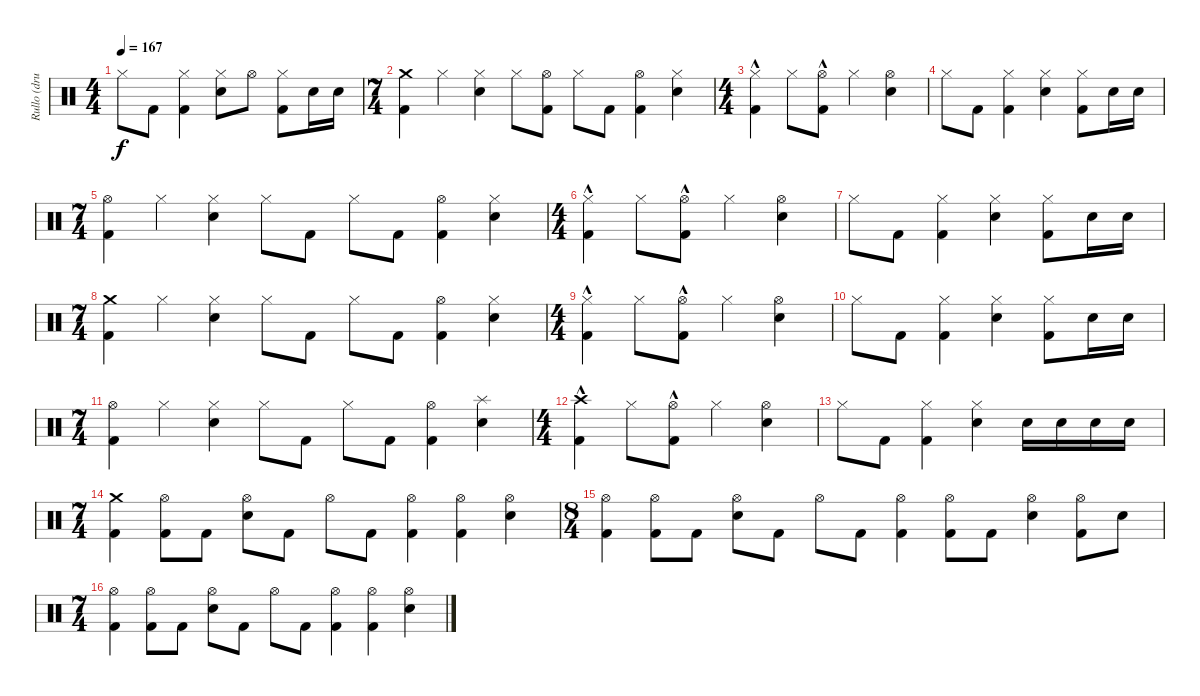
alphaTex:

\track ("Rullo (drums)" "Rullo (dru") {instrument percussion}
\staff {score}
\articulation defaults
\ts (4 4)
\tempo 167
\clef neutral
\ks c "Hi-Hat (closed)".8{dy f} "Kick (hit) 2".8
("Hi-Hat (closed)" "Kick (hit) 2").4 ("Hi-Hat (closed)" "Electric Snare (hit)").8 "Hi-Hat (open)".8 ("Hi-Hat (closed)" "Kick (hit) 2").8 "Electric Snare (hit)".16 "Electric Snare (hit)".16 |
\ts (7 4)
("Crash medium (hit)" "Kick (hit) 2").4 "Hi-Hat (closed)".4 ("Hi-Hat (closed)" "Electric Snare (hit)").4 "Hi-Hat (closed)".8 ("Hi-Hat (open)" "Kick (hit) 2").8 "Hi-Hat (closed)".8 "Kick (hit) 2".8 ("Hi-Hat (open)" "Kick (hit) 2").4 ("Hi-Hat (closed)" "Electric Snare (hit)").4 |
\ts (4 4)
("Hi-Hat (closed)" "Kick (hit) 2"{hac}).4 "Hi-Hat (closed)".8 ("Hi-Hat (open)" "Kick (hit) 2"{hac}).8 "Hi-Hat (closed)".4 ("Hi-Hat (open)" "Electric Snare (hit)").4 |
"Hi-Hat (closed)".8 "Kick (hit) 2".8 ("Hi-Hat (closed)" "Kick (hit) 2").4 ("Hi-Hat (closed)" "Electric Snare (hit)").4 ("Hi-Hat (closed)" "Kick (hit) 2").8 "Electric Snare (hit)".16 "Electric Snare (hit)".16 |
\ts (7 4)
("Hi-Hat (open)" "Kick (hit) 2").4 "Hi-Hat (closed)".4 ("Hi-Hat (closed)" "Electric Snare (hit)").4 "Hi-Hat (closed)".8 "Kick (hit) 2".8 "Hi-Hat (closed)".8 "Kick (hit) 2".8 ("Hi-Hat (open)" "Kick (hit) 2").4 ("Hi-Hat (closed)" "Electric Snare (hit)").4 |
\ts (4 4)
("Hi-Hat (closed)" "Kick (hit) 2"{hac}).4 "Hi-Hat (closed)".8 ("Hi-Hat (open)" "Kick (hit) 2"{hac}).8 "Hi-Hat (closed)".4 ("Hi-Hat (open)" "Electric Snare (hit)").4 |
"Hi-Hat (closed)".8 "Kick (hit) 2".8 ("Hi-Hat (closed)" "Kick (hit) 2").4 ("Hi-Hat (closed)" "Electric Snare (hit)").4 ("Hi-Hat (closed)" "Kick (hit) 2").8 "Electric Snare (hit)".16 "Electric Snare (hit)".16 |
\ts (7 4)
("Crash medium (hit)" "Kick (hit) 2").4 "Hi-Hat (closed)".4 ("Hi-Hat (closed)" "Electric Snare (hit)").4 "Hi-Hat (closed)".8 "Kick (hit) 2".8 "Hi-Hat (closed)".8 "Kick (hit) 2".8 ("Hi-Hat (open)" "Kick (hit) 2").4 ("Hi-Hat (closed)" "Electric Snare (hit)").4 |
\ts (4 4)
("Hi-Hat (closed)" "Kick (hit) 2"{hac}).4 "Hi-Hat (closed)".8 ("Hi-Hat (open)" "Kick (hit) 2"{hac}).8 "Hi-Hat (closed)".4 ("Hi-Hat (open)" "Electric Snare (hit)").4 |
"Hi-Hat (closed)".8 "Kick (hit) 2".8 ("Hi-Hat (closed)" "Kick (hit) 2").4 ("Hi-Hat (closed)" "Electric Snare (hit)").4 ("Hi-Hat (closed)" "Kick (hit) 2").8 "Electric Snare (hit)".16 "Electric Snare (hit)".16 |
\ts (7 4)
("Hi-Hat (open)" "Kick (hit) 2").4 "Hi-Hat (closed)".4 ("Hi-Hat (closed)" "Electric Snare (hit)").4 "Hi-Hat (closed)".8 "Kick (hit) 2".8 "Hi-Hat (closed)".8 "Kick (hit) 2".8 ("Hi-Hat (open)" "Kick (hit) 2").4 ("Splash (hit)" "Electric Snare (hit)").4 |
\ts (4 4)
("Crash high (hit)" "Kick (hit) 2"{hac}).4 "Hi-Hat (closed)".8 ("Hi-Hat (open)" "Kick (hit) 2"{hac}).8 "Hi-Hat (closed)".4 ("Hi-Hat (open)" "Electric Snare (hit)").4 |
"Hi-Hat (closed)".8 "Kick (hit) 2".8 ("Hi-Hat (closed)" "Kick (hit) 2").4 ("Hi-Hat (closed)" "Electric Snare (hit)").4 "Electric Snare (hit)".16 "Electric Snare (hit)".16 "Electric Snare (hit)".16 "Electric Snare (hit)".16 |
\ts (7 4)
("Crash medium (hit)" "Kick (hit) 2").4 ("Hi-Hat (open)" "Kick (hit) 2").8 "Kick (hit) 2".8 ("Hi-Hat (open)" "Electric Snare (hit)").8 "Kick (hit) 2".8 "Hi-Hat (open)".8 "Kick (hit) 2".8 ("Hi-Hat (open)" "Kick (hit) 2").4 ("Hi-Hat (open)" "Kick (hit) 2").4 ("Hi-Hat (open)" "Electric Snare (hit)").4 |
\ts (8 4)
("Hi-Hat (open)" "Kick (hit) 2").4 ("Hi-Hat (open)" "Kick (hit) 2").8 "Kick (hit) 2".8 ("Hi-Hat (open)" "Electric Snare (hit)").8 "Kick (hit) 2".8 "Hi-Hat (open)".8 "Kick (hit) 2".8 ("Hi-Hat (open)" "Kick (hit) 2").4 ("Hi-Hat (open)" "Kick (hit) 2").8 "Kick (hit) 2".8 ("Hi-Hat (open)" "Electric Snare (hit)").4 ("Hi-Hat (open)" "Kick (hit) 2").8 "Electric Snare (hit)".8 |
\ts (7 4)
("Hi-Hat (open)" "Kick (hit) 2").4 ("Hi-Hat (open)" "Kick (hit) 2").8 "Kick (hit) 2".8 ("Hi-Hat (open)" "Electric Snare (hit)").8 "Kick (hit) 2".8 "Hi-Hat (open)".8 "Kick (hit) 2".8 ("Hi-Hat (open)" "Kick (hit) 2").4 ("Hi-Hat (open)" "Kick (hit) 2").4 ("Hi-Hat (open)" "Electric Snare (hit)").4
